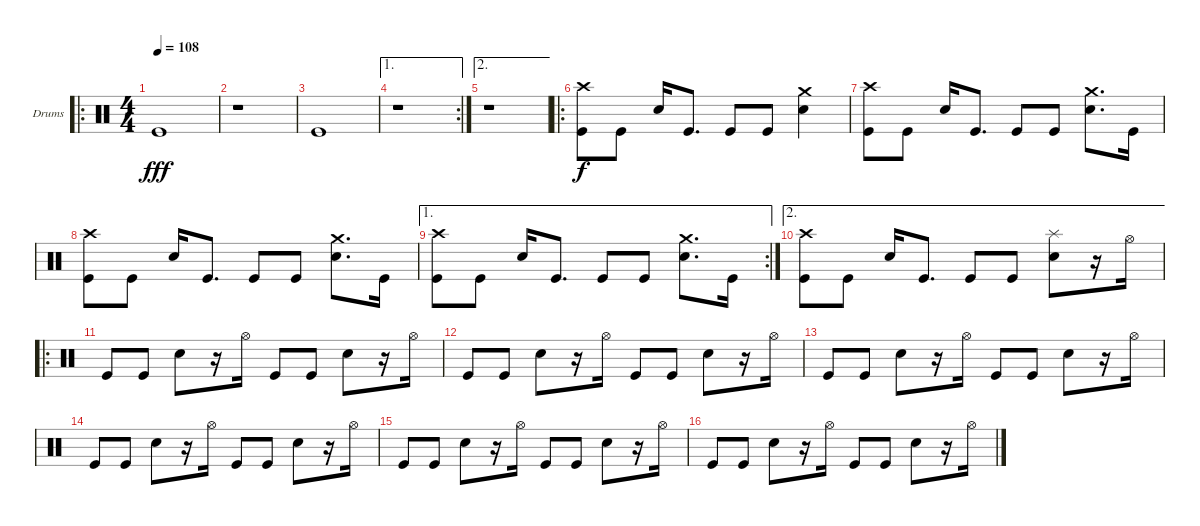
\bracketExtendMode groupsimilarinstruments
\firstSystemTrackNameOrientation horizontal
\otherSystemsTrackNameOrientation horizontal
\track ("Drumkit" "Drums") {instrument percussion}
\staff {score}
\articulation defaults
\ro
\ts (4 4)
\tempo 108
\clef neutral
\ks c "Kick (hit)".1{dy fff}
|
r.1 |
"Kick (hit)".1 |
\ae 1
\rc 2
r.1 |
\ae 2
r.1 |
\ro
("Crash high (hit)" "Kick (hit)").8{dy f} "Kick (hit)".8 "Snare (hit) 2".16 "Kick (hit)".8{d} "Kick (hit)".8 "Kick (hit)".8 ("Crash medium (hit)" "Snare (hit) 2").4 |
("Crash high (hit)" "Kick (hit)").8 "Kick (hit)".8 "Snare (hit) 2".16 "Kick (hit)".8{d} "Kick (hit)".8 "Kick (hit)".8 ("Crash medium (hit)" "Snare (hit) 2").8{d} "Kick (hit)".16 |
("Crash high (hit)" "Kick (hit)").8 "Kick (hit)".8 "Snare (hit) 2".16 "Kick (hit)".8{d} "Kick (hit)".8 "Kick (hit)".8 ("Crash medium (hit)" "Snare (hit) 2").8{d} "Kick (hit)".16 |
\ae 1
\rc 2
("Crash high (hit)" "Kick (hit)").8 "Kick (hit)".8 "Snare (hit) 2".16 "Kick (hit)".8{d} "Kick (hit)".8 "Kick (hit)".8 ("Crash medium (hit)" "Snare (hit) 2").8{d} "Kick (hit)".16 |
\ae 2
("Crash high (hit)" "Kick (hit)").8 "Kick (hit)".8 "Snare (hit) 2".16 "Kick (hit)".8{d} "Kick (hit)".8 "Kick (hit)".8 ("Splash (hit)" "Snare (hit) 2").8 r.16 "Hi-Hat (open)".16 |
\ro "Kick (hit)".8 "Kick (hit)".8 "Snare (hit) 2".8
r.16 "Hi-Hat (open)".16 "Kick (hit)".8 "Kick (hit)".8 "Snare (hit) 2".8 r.16 "Hi-Hat (open)".16 |
"Kick (hit)".8 "Kick (hit)".8 "Snare (hit) 2".8 r.16 "Hi-Hat (open)".16 "Kick (hit)".8 "Kick (hit)".8 "Snare (hit) 2".8 r.16 "Hi-Hat (open)".16 |
"Kick (hit)".8 "Kick (hit)".8 "Snare (hit) 2".8 r.16 "Hi-Hat (open)".16 "Kick (hit)".8 "Kick (hit)".8 "Snare (hit) 2".8 r.16 "Hi-Hat (open)".16 |
"Kick (hit)".8 "Kick (hit)".8 "Snare (hit) 2".8 r.16 "Hi-Hat (open)".16 "Kick (hit)".8 "Kick (hit)".8 "Snare (hit) 2".8 r.16 "Hi-Hat (open)".16 |
"Kick (hit)".8 "Kick (hit)".8 "Snare (hit) 2".8 r.16 "Hi-Hat (open)".16 "Kick (hit)".8 "Kick (hit)".8 "Snare (hit) 2".8 r.16 "Hi-Hat (open)".16 |
"Kick (hit)".8 "Kick (hit)".8 "Snare (hit) 2".8 r.16 "Hi-Hat (open)".16 "Kick (hit)".8 "Kick (hit)".8 "Snare (hit) 2".8 r.16 "Hi-Hat (open)".16
